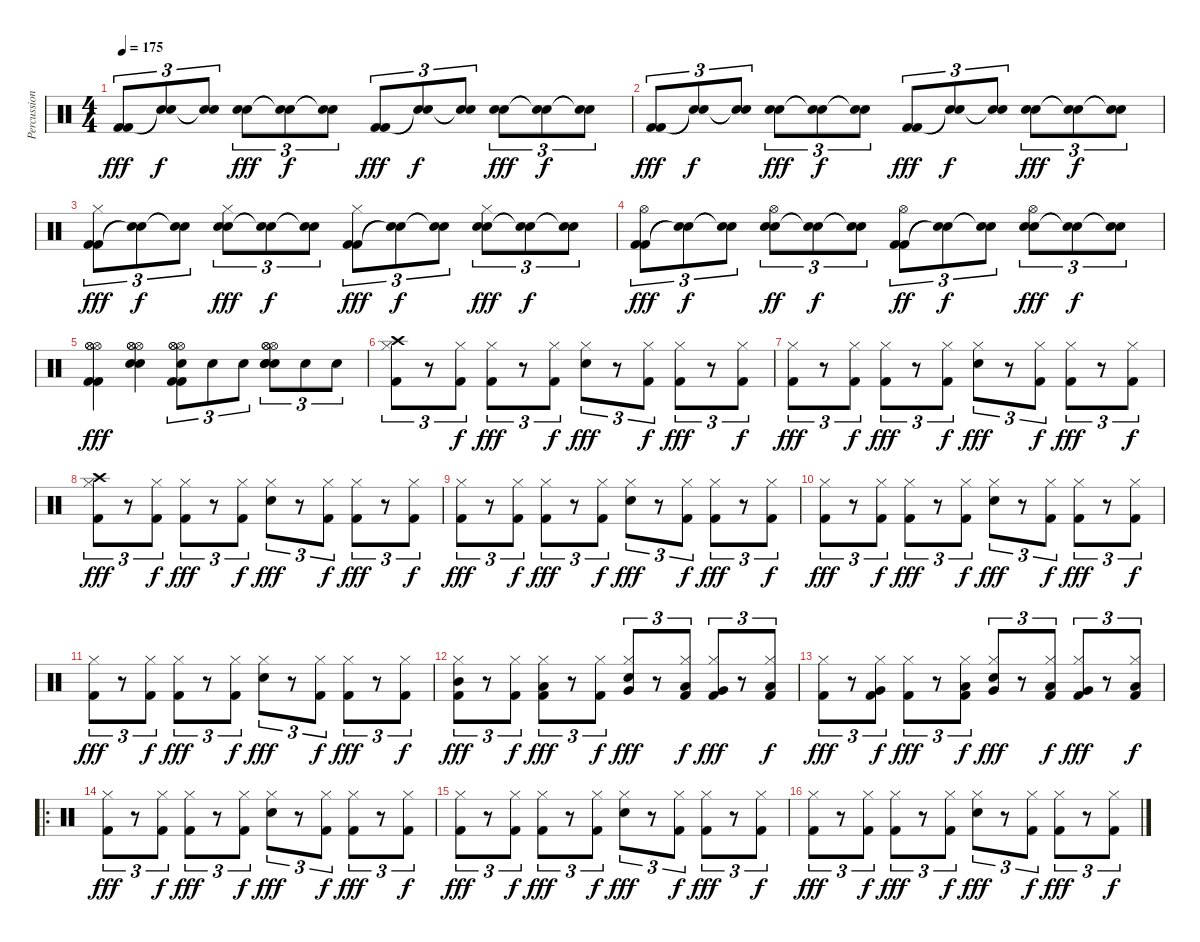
\track ("Percussion" "Percussion") {instrument percussion}
\staff {score}
\articulation defaults
\ts (4 4)
\tempo 175
\clef neutral
\ks c
("Kick (hit) 2" "Kick (hit) 2").8{tu (3 2) dy fff} ("Snare (hit)"{t} "Snare (hit)"{t}).8{tu (3 2) dy f} ("Snare (hit)"{t} "Snare (hit)"{t}).8{tu (3 2)} ("Electric Snare (hit)" "Electric Snare (hit)").8{tu (3 2) dy fff} ("Snare (hit)"{t} "Snare (hit)"{t}).8{tu (3 2) dy f} ("Snare (hit)"{t} "Snare (hit)"{t}).8{tu (3 2)} ("Kick (hit) 2" "Kick (hit) 2").8{tu (3 2) dy fff} ("Snare (hit)"{t} "Snare (hit)"{t}).8{tu (3 2) dy f} ("Snare (hit)"{t} "Snare (hit)"{t}).8{tu (3 2)} ("Electric Snare (hit)" "Electric Snare (hit)").8{tu (3 2) dy fff} ("Snare (hit)"{t} "Snare (hit)"{t}).8{tu (3 2) dy f} ("Snare (hit)"{t} "Snare (hit)"{t}).8{tu (3 2)} |
("Kick (hit) 2" "Kick (hit) 2").8{tu (3 2) dy fff} ("Snare (hit)"{t} "Snare (hit)"{t}).8{tu (3 2) dy f} ("Snare (hit)"{t} "Snare (hit)"{t}).8{tu (3 2)} ("Electric Snare (hit)" "Electric Snare (hit)").8{tu (3 2) dy fff} ("Snare (hit)"{t} "Snare (hit)"{t}).8{tu (3 2) dy f} ("Snare (hit)"{t} "Snare (hit)"{t}).8{tu (3 2)} ("Kick (hit) 2" "Kick (hit) 2").8{tu (3 2) dy fff} ("Snare (hit)"{t} "Snare (hit)"{t}).8{tu (3 2) dy f} ("Snare (hit)"{t} "Snare (hit)"{t}).8{tu (3 2)} ("Electric Snare (hit)" "Electric Snare (hit)").8{tu (3 2) dy fff} ("Snare (hit)"{t} "Snare (hit)"{t}).8{tu (3 2) dy f} ("Snare (hit)"{t} "Snare (hit)"{t}).8{tu (3 2)} |
("Kick (hit) 2" "Kick (hit) 2" "Hi-Hat (closed)").8{tu (3 2) dy fff} ("Snare (hit)"{t} "Snare (hit)"{t}).8{tu (3 2) dy f} ("Snare (hit)"{t} "Snare (hit)"{t}).8{tu (3 2)} ("Electric Snare (hit)" "Electric Snare (hit)" "Hi-Hat (closed)").8{tu (3 2) dy fff} ("Snare (hit)"{t} "Snare (hit)"{t}).8{tu (3 2) dy f} ("Snare (hit)"{t} "Snare (hit)"{t}).8{tu (3 2)} ("Kick (hit) 2" "Kick (hit) 2" "Hi-Hat (closed)").8{tu (3 2) dy fff} ("Snare (hit)"{t} "Snare (hit)"{t}).8{tu (3 2) dy f} ("Snare (hit)"{t} "Snare (hit)"{t}).8{tu (3 2)} ("Electric Snare (hit)" "Electric Snare (hit)" "Hi-Hat (closed)").8{tu (3 2) dy fff} ("Snare (hit)"{t} "Snare (hit)"{t}).8{tu (3 2) dy f} ("Snare (hit)"{t} "Snare (hit)"{t}).8{tu (3 2)} |
("Kick (hit) 2" "Kick (hit) 2" "Hi-Hat (open)").8{tu (3 2) dy fff} ("Snare (hit)"{t} "Snare (hit)"{t}).8{tu (3 2) dy f} ("Snare (hit)"{t} "Snare (hit)"{t}).8{tu (3 2)} ("Electric Snare (hit)" "Electric Snare (hit)" "Hi-Hat (open)").8{tu (3 2) dy ff} ("Snare (hit)"{t} "Snare (hit)"{t}).8{tu (3 2) dy f} ("Snare (hit)"{t} "Snare (hit)"{t}).8{tu (3 2)} ("Kick (hit) 2" "Kick (hit) 2" "Hi-Hat (open)").8{tu (3 2) dy ff} ("Snare (hit)"{t} "Snare (hit)"{t}).8{tu (3 2) dy f} ("Snare (hit)"{t} "Snare (hit)"{t}).8{tu (3 2)} ("Electric Snare (hit)" "Electric Snare (hit)" "Hi-Hat (open)").8{tu (3 2) dy fff} ("Snare (hit)"{t} "Snare (hit)"{t}).8{tu (3 2) dy f} ("Snare (hit)"{t} "Snare (hit)"{t}).8{tu (3 2)} |
("Hi-Hat (open)" "Hi-Hat (open)" "Hi-Hat (open)" "Kick (hit) 2" "Kick (hit) 2").4{dy fff} ("Hi-Hat (open)" "Hi-Hat (open)" "Hi-Hat (open)" "Electric Snare (hit)" "Electric Snare (hit)").4 ("Hi-Hat (open)" "Hi-Hat (open)" "Hi-Hat (open)" "Snare (hit) 2" "Kick (hit) 2" "Kick (hit) 2").8{tu (3 2)} "Snare (hit) 2".8{tu (3 2)} "Snare (hit) 2".8{tu (3 2)} ("Hi-Hat (open)" "Hi-Hat (open)" "Hi-Hat (open)" "Snare (hit) 2" "Electric Snare (hit)" "Electric Snare (hit)").8{tu (3 2)} "Snare (hit) 2".8{tu (3 2)} "Snare (hit) 2".8{tu (3 2)} |
("Kick (hit) 2" "Hi-Hat (closed)" "Crash high (hit)").8{tu (3 2)} r.8{tu (3 2)} ("Kick (hit) 2" "Hi-Hat (closed)").8{tu (3 2) dy f} ("Kick (hit) 2" "Hi-Hat (closed)").8{tu (3 2) dy fff} r.8{tu (3 2)} ("Kick (hit) 2" "Hi-Hat (closed)").8{tu (3 2) dy f} ("Electric Snare (hit)" "Hi-Hat (closed)").8{tu (3 2) dy fff} r.8{tu (3 2)} ("Kick (hit) 2" "Hi-Hat (closed)").8{tu (3 2) dy f} ("Kick (hit) 2" "Hi-Hat (closed)").8{tu (3 2) dy fff} r.8{tu (3 2)} ("Kick (hit) 2" "Hi-Hat (closed)").8{tu (3 2) dy f} |
("Kick (hit) 2" "Hi-Hat (closed)").8{tu (3 2) dy fff} r.8{tu (3 2)} ("Kick (hit) 2" "Hi-Hat (closed)").8{tu (3 2) dy f} ("Kick (hit) 2" "Hi-Hat (closed)").8{tu (3 2) dy fff} r.8{tu (3 2)} ("Kick (hit) 2" "Hi-Hat (closed)").8{tu (3 2) dy f} ("Electric Snare (hit)" "Hi-Hat (closed)").8{tu (3 2) dy fff} r.8{tu (3 2)} ("Kick (hit) 2" "Hi-Hat (closed)").8{tu (3 2) dy f} ("Kick (hit) 2" "Hi-Hat (closed)").8{tu (3 2) dy fff} r.8{tu (3 2)} ("Kick (hit) 2" "Hi-Hat (closed)").8{tu (3 2) dy f} |
("Kick (hit) 2" "Hi-Hat (closed)" "Crash high (hit)").8{tu (3 2) dy fff} r.8{tu (3 2)} ("Kick (hit) 2" "Hi-Hat (closed)").8{tu (3 2) dy f} ("Kick (hit) 2" "Hi-Hat (closed)").8{tu (3 2) dy fff} r.8{tu (3 2)} ("Kick (hit) 2" "Hi-Hat (closed)").8{tu (3 2) dy f} ("Electric Snare (hit)" "Hi-Hat (closed)").8{tu (3 2) dy fff} r.8{tu (3 2)} ("Kick (hit) 2" "Hi-Hat (closed)").8{tu (3 2) dy f} ("Kick (hit) 2" "Hi-Hat (closed)").8{tu (3 2) dy fff} r.8{tu (3 2)} ("Kick (hit) 2" "Hi-Hat (closed)").8{tu (3 2) dy f} |
("Kick (hit) 2" "Hi-Hat (closed)").8{tu (3 2) dy fff} r.8{tu (3 2)} ("Kick (hit) 2" "Hi-Hat (closed)").8{tu (3 2) dy f} ("Kick (hit) 2" "Hi-Hat (closed)").8{tu (3 2) dy fff} r.8{tu (3 2)} ("Kick (hit) 2" "Hi-Hat (closed)").8{tu (3 2) dy f} ("Electric Snare (hit)" "Hi-Hat (closed)").8{tu (3 2) dy fff} r.8{tu (3 2)} ("Kick (hit) 2" "Hi-Hat (closed)").8{tu (3 2) dy f} ("Kick (hit) 2" "Hi-Hat (closed)").8{tu (3 2) dy fff} r.8{tu (3 2)} ("Kick (hit) 2" "Hi-Hat (closed)").8{tu (3 2) dy f} |
("Kick (hit) 2" "Hi-Hat (closed)").8{tu (3 2) dy fff} r.8{tu (3 2)} ("Kick (hit) 2" "Hi-Hat (closed)").8{tu (3 2) dy f} ("Kick (hit) 2" "Hi-Hat (closed)").8{tu (3 2) dy fff} r.8{tu (3 2)} ("Kick (hit) 2" "Hi-Hat (closed)").8{tu (3 2) dy f} ("Electric Snare (hit)" "Hi-Hat (closed)").8{tu (3 2) dy fff} r.8{tu (3 2)} ("Kick (hit) 2" "Hi-Hat (closed)").8{tu (3 2) dy f} ("Kick (hit) 2" "Hi-Hat (closed)").8{tu (3 2) dy fff} r.8{tu (3 2)} ("Kick (hit) 2" "Hi-Hat (closed)").8{tu (3 2) dy f} |
("Kick (hit) 2" "Hi-Hat (closed)").8{tu (3 2) dy fff} r.8{tu (3 2)} ("Kick (hit) 2" "Hi-Hat (closed)").8{tu (3 2) dy f} ("Kick (hit) 2" "Hi-Hat (closed)").8{tu (3 2) dy fff} r.8{tu (3 2)} ("Kick (hit) 2" "Hi-Hat (closed)").8{tu (3 2) dy f} ("Electric Snare (hit)" "Hi-Hat (closed)").8{tu (3 2) dy fff} r.8{tu (3 2)} ("Kick (hit) 2" "Hi-Hat (closed)").8{tu (3 2) dy f} ("Kick (hit) 2" "Hi-Hat (closed)").8{tu (3 2) dy fff} r.8{tu (3 2)} ("Kick (hit) 2" "Hi-Hat (closed)").8{tu (3 2) dy f} |
("Kick (hit) 2" "Hi-Hat (closed)" "Mid Tom (hit)").8{tu (3 2) dy fff} r.8{tu (3 2)} ("Kick (hit) 2" "Hi-Hat (closed)").8{tu (3 2) dy f} ("Kick (hit) 2" "Hi-Hat (closed)" "Low Tom (hit)").8{tu (3 2) dy fff} r.8{tu (3 2)} ("Kick (hit) 2" "Hi-Hat (closed)").8{tu (3 2) dy f} ("Electric Snare (hit)" "Hi-Hat (closed)" "Very Low Tom (hit)").8{tu (3 2) dy fff} r.8{tu (3 2)} ("Kick (hit) 2" "Hi-Hat (closed)" "Low Floor Tom (hit)").8{tu (3 2) dy f} ("Kick (hit) 2" "Hi-Hat (closed)" "Very Low Tom (hit)").8{tu (3 2) dy fff} r.8{tu (3 2)} ("Kick (hit) 2" "Hi-Hat (closed)" "Low Floor Tom (hit)").8{tu (3 2) dy f} |
("Kick (hit) 2" "Hi-Hat (closed)").8{tu (3 2) dy fff} r.8{tu (3 2)} ("Kick (hit) 2" "Hi-Hat (closed)" "Very Low Tom (hit)").8{tu (3 2) dy f} ("Kick (hit) 2" "Hi-Hat (closed)").8{tu (3 2) dy fff} r.8{tu (3 2)} ("Kick (hit) 2" "Hi-Hat (closed)" "Low Floor Tom (hit)").8{tu (3 2) dy f} ("Electric Snare (hit)" "Hi-Hat (closed)" "Very Low Tom (hit)").8{tu (3 2) dy fff} r.8{tu (3 2)} ("Kick (hit) 2" "Hi-Hat (closed)" "Low Floor Tom (hit)").8{tu (3 2) dy f} ("Kick (hit) 2" "Hi-Hat (closed)" "Very Low Tom (hit)").8{tu (3 2) dy fff} r.8{tu (3 2)} ("Kick (hit) 2" "Hi-Hat (closed)" "Low Floor Tom (hit)").8{tu (3 2) dy f} |
\ro
("Kick (hit) 2" "Hi-Hat (closed)").8{tu (3 2) dy fff} r.8{tu (3 2)} ("Kick (hit) 2" "Hi-Hat (closed)").8{tu (3 2) dy f} ("Kick (hit) 2" "Hi-Hat (closed)").8{tu (3 2) dy fff} r.8{tu (3 2)} ("Kick (hit) 2" "Hi-Hat (closed)").8{tu (3 2) dy f} ("Electric Snare (hit)" "Hi-Hat (closed)").8{tu (3 2) dy fff} r.8{tu (3 2)} ("Kick (hit) 2" "Hi-Hat (closed)").8{tu (3 2) dy f} ("Kick (hit) 2" "Hi-Hat (closed)").8{tu (3 2) dy fff} r.8{tu (3 2)} ("Kick (hit) 2" "Hi-Hat (closed)").8{tu (3 2) dy f} |
("Kick (hit) 2" "Hi-Hat (closed)").8{tu (3 2) dy fff} r.8{tu (3 2)} ("Kick (hit) 2" "Hi-Hat (closed)").8{tu (3 2) dy f} ("Kick (hit) 2" "Hi-Hat (closed)").8{tu (3 2) dy fff} r.8{tu (3 2)} ("Kick (hit) 2" "Hi-Hat (closed)").8{tu (3 2) dy f} ("Electric Snare (hit)" "Hi-Hat (closed)").8{tu (3 2) dy fff} r.8{tu (3 2)} ("Kick (hit) 2" "Hi-Hat (closed)").8{tu (3 2) dy f} ("Kick (hit) 2" "Hi-Hat (closed)").8{tu (3 2) dy fff} r.8{tu (3 2)} ("Kick (hit) 2" "Hi-Hat (closed)").8{tu (3 2) dy f} |
("Kick (hit) 2" "Hi-Hat (closed)").8{tu (3 2) dy fff} r.8{tu (3 2)} ("Kick (hit) 2" "Hi-Hat (closed)").8{tu (3 2) dy f} ("Kick (hit) 2" "Hi-Hat (closed)").8{tu (3 2) dy fff} r.8{tu (3 2)} ("Kick (hit) 2" "Hi-Hat (closed)").8{tu (3 2) dy f} ("Electric Snare (hit)" "Hi-Hat (closed)").8{tu (3 2) dy fff} r.8{tu (3 2)} ("Kick (hit) 2" "Hi-Hat (closed)").8{tu (3 2) dy f} ("Kick (hit) 2" "Hi-Hat (closed)").8{tu (3 2) dy fff} r.8{tu (3 2)} ("Kick (hit) 2" "Hi-Hat (closed)").8{tu (3 2) dy f}
